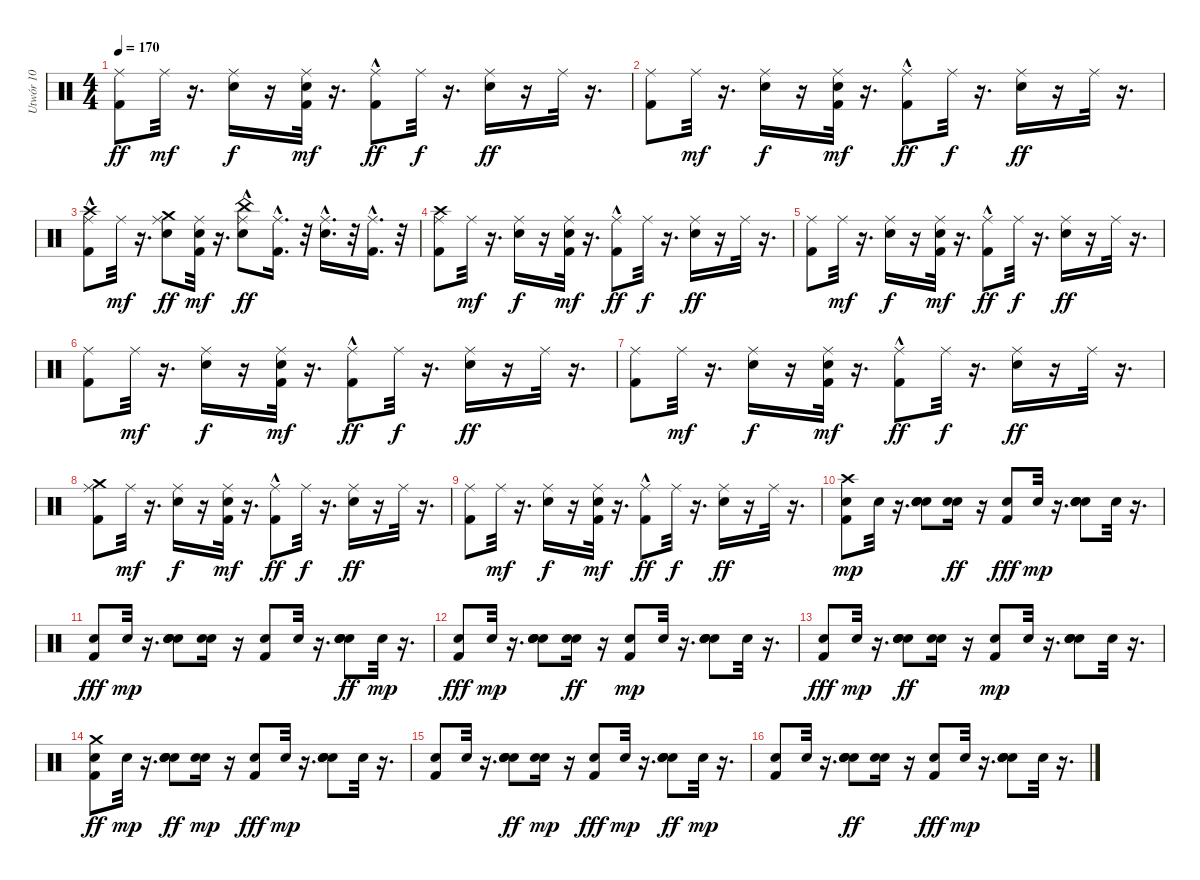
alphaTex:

\track ("Utwór 10" "Utwór 10") {instrument percussion}
\staff {score}
\articulation defaults
\ts (4 4)
\tempo 170
\clef neutral
\ks c
("Ride (middle)" "Kick (hit) 2").8{dy ff} "Ride (middle)".32{dy mf} r.16{d} ("Ride (middle)" "Snare (hit) 2").16{dy f} r.16 ("Snare (hit) 2" "Ride (middle)" "Kick (hit) 2").32{dy mf} r.16{d} ("Ride (middle)" "Kick (hit) 2"{hac}).8{dy ff} "Ride (middle)".32{dy f} r.16{d} ("Snare (hit) 2" "Ride (middle)").16{dy ff} r.16 "Ride (middle)".32 r.16{d} |
("Kick (hit) 2" "Ride (middle)").8 "Ride (middle)".32{dy mf} r.16{d} ("Snare (hit) 2" "Ride (middle)").16{dy f} r.16 ("Kick (hit) 2" "Ride (middle)" "Snare (hit) 2").32{dy mf} r.16{d} ("Kick (hit) 2"{hac} "Ride (middle)").8{dy ff} "Ride (middle)".32{dy f} r.16{d} ("Snare (hit) 2" "Ride (middle)").16{dy ff} r.16 "Ride (middle)".32 r.16{d} |
("Ride (middle)" "Crash high (hit)"{hac} "Kick (hit) 2").8 "Ride (middle)".32{dy mf} r.16{d} ("Ride (middle)" "Snare (hit) 2" "Crash medium (hit)").8{dy ff} ("Kick (hit) 2" "Snare (hit) 2" "Ride (middle)").32{dy mf} r.16{d} ("Snare (hit) 2" "China (hit)"{hac} "Ride (middle)").8{dy ff} ("Kick (hit) 2"{hac} "Ride (middle)").16{d} r.32 ("Ride (middle)" "Snare (hit) 2"{hac}).16{d} r.32 ("Kick (hit) 2"{hac} "Ride (middle)").16{d} r.32 |
("Kick (hit) 2" "Crash high (hit)" "Ride (middle)").8 "Ride (middle)".32{dy mf} r.16{d} ("Snare (hit) 2" "Ride (middle)").16{dy f} r.16 ("Ride (middle)" "Snare (hit) 2" "Kick (hit) 2").32{dy mf} r.16{d} ("Kick (hit) 2"{hac} "Ride (middle)").8{dy ff} "Ride (middle)".32{dy f} r.16{d} ("Ride (middle)" "Snare (hit) 2").16{dy ff} r.16 "Ride (middle)".32 r.16{d} |
("Kick (hit) 2" "Ride (middle)").8 "Ride (middle)".32{dy mf} r.16{d} ("Snare (hit) 2" "Ride (middle)").16{dy f} r.16 ("Kick (hit) 2" "Ride (middle)" "Snare (hit) 2").32{dy mf} r.16{d} ("Ride (middle)" "Kick (hit) 2"{hac}).8{dy ff} "Ride (middle)".32{dy f} r.16{d} ("Snare (hit) 2" "Ride (middle)").16{dy ff} r.16 "Ride (middle)".32 r.16{d} |
("Kick (hit) 2" "Ride (middle)").8 "Ride (middle)".32{dy mf} r.16{d} ("Ride (middle)" "Snare (hit) 2").16{dy f} r.16 ("Snare (hit) 2" "Kick (hit) 2" "Ride (middle)").32{dy mf} r.16{d} ("Ride (middle)" "Kick (hit) 2"{hac}).8{dy ff} "Ride (middle)".32{dy f} r.16{d} ("Ride (middle)" "Snare (hit) 2").16{dy ff} r.16 "Ride (middle)".32 r.16{d} |
("Kick (hit) 2" "Ride (middle)").8 "Ride (middle)".32{dy mf} r.16{d} ("Snare (hit) 2" "Ride (middle)").16{dy f} r.16 ("Snare (hit) 2" "Kick (hit) 2" "Ride (middle)").32{dy mf} r.16{d} ("Kick (hit) 2"{hac} "Ride (middle)").8{dy ff} "Ride (middle)".32{dy f} r.16{d} ("Ride (middle)" "Snare (hit) 2").16{dy ff} r.16 "Ride (middle)".32 r.16{d} |
("Kick (hit) 2" "Crash medium (hit)" "Ride (middle)").8 "Ride (middle)".32{dy mf} r.16{d} ("Snare (hit) 2" "Ride (middle)").16{dy f} r.16 ("Ride (middle)" "Snare (hit) 2" "Kick (hit) 2").32{dy mf} r.16{d} ("Ride (middle)" "Kick (hit) 2"{hac}).8{dy ff} "Ride (middle)".32{dy f} r.16{d} ("Ride (middle)" "Snare (hit) 2").16{dy ff} r.16 "Ride (middle)".32 r.16{d} |
("Kick (hit) 2" "Ride (middle)").8 "Ride (middle)".32{dy mf} r.16{d} ("Snare (hit) 2" "Ride (middle)").16{dy f} r.16 ("Kick (hit) 2" "Ride (middle)" "Snare (hit) 2").32{dy mf} r.16{d} ("Kick (hit) 2"{hac} "Ride (middle)").8{dy ff} "Ride (middle)".32{dy f} r.16{d} ("Ride (middle)" "Snare (hit) 2").16{dy ff} r.16 "Ride (middle)".32 r.16{d} |
("Kick (hit) 2" "Crash high (hit)" "Snare (hit) 2").8{dy mp} "Snare (hit) 2".32 r.16{d} ("Hand Clap (hit)" "Snare (hit) 2" "Snare (hit) 2" "Snare (hit) 2").8 ("Snare (hit) 2" "Hand Clap (hit)").16{dy ff} r.16 ("Snare (hit) 2" "Kick (hit) 2").8{dy fff} "Snare (hit) 2".32{dy mp} r.16{d} ("Hand Clap (hit)" "Snare (hit) 2" "Snare (hit) 2" "Snare (hit) 2").8 "Snare (hit) 2".32 r.16{d} |
("Snare (hit) 2" "Kick (hit) 2").8{dy fff} "Snare (hit) 2".32{dy mp} r.16{d} ("Hand Clap (hit)" "Snare (hit) 2" "Snare (hit) 2" "Snare (hit) 2").8 ("Hand Clap (hit)" "Snare (hit) 2").16 r.16 ("Kick (hit) 2" "Snare (hit) 2").8 "Snare (hit) 2".32 r.16{d} ("Snare (hit) 2" "Snare (hit) 2" "Hand Clap (hit)" "Snare (hit) 2").8{dy ff} "Snare (hit) 2".32{dy mp} r.16{d} |
("Snare (hit) 2" "Kick (hit) 2").8{dy fff} "Snare (hit) 2".32{dy mp} r.16{d} ("Hand Clap (hit)" "Snare (hit) 2" "Snare (hit) 2" "Snare (hit) 2").8 ("Snare (hit) 2" "Hand Clap (hit)").16{dy ff} r.16 ("Kick (hit) 2" "Snare (hit) 2").8{dy mp} "Snare (hit) 2".32 r.16{d} ("Hand Clap (hit)" "Snare (hit) 2" "Snare (hit) 2" "Snare (hit) 2").8 "Snare (hit) 2".32 r.16{d} |
("Snare (hit) 2" "Kick (hit) 2").8{dy fff} "Snare (hit) 2".32{dy mp} r.16{d} ("Snare (hit) 2" "Hand Clap (hit)" "Snare (hit) 2" "Snare (hit) 2").8{dy ff} ("Snare (hit) 2" "Hand Clap (hit)").16 r.16 ("Kick (hit) 2" "Snare (hit) 2").8{dy mp} "Snare (hit) 2".32 r.16{d} ("Snare (hit) 2" "Hand Clap (hit)" "Snare (hit) 2" "Snare (hit) 2").8 "Snare (hit) 2".32 r.16{d} |
("Kick (hit) 2" "Snare (hit) 2" "Crash medium (hit)").8{dy ff} "Snare (hit) 2".32{dy mp} r.16{d} ("Snare (hit) 2" "Snare (hit) 2" "Hand Clap (hit)" "Snare (hit) 2").8{dy ff} ("Hand Clap (hit)" "Snare (hit) 2").16{dy mp} r.16 ("Snare (hit) 2" "Kick (hit) 2").8{dy fff} "Snare (hit) 2".32{dy mp} r.16{d} ("Snare (hit) 2" "Hand Clap (hit)" "Snare (hit) 2" "Snare (hit) 2").8 "Snare (hit) 2".32 r.16{d} |
("Kick (hit) 2" "Snare (hit) 2").8 "Snare (hit) 2".32 r.16{d} ("Snare (hit) 2" "Hand Clap (hit)" "Snare (hit) 2" "Snare (hit) 2").8{dy ff} ("Hand Clap (hit)" "Snare (hit) 2").16{dy mp} r.16 ("Snare (hit) 2" "Kick (hit) 2").8{dy fff} "Snare (hit) 2".32{dy mp} r.16{d} ("Snare (hit) 2" "Snare (hit) 2" "Hand Clap (hit)" "Snare (hit) 2").8{dy ff} "Snare (hit) 2".32{dy mp} r.16{d} |
("Kick (hit) 2" "Snare (hit) 2").8 "Snare (hit) 2".32 r.16{d} ("Snare (hit) 2" "Hand Clap (hit)" "Snare (hit) 2" "Snare (hit) 2").8{dy ff} ("Snare (hit) 2" "Hand Clap (hit)").16 r.16 ("Snare (hit) 2" "Kick (hit) 2").8{dy fff} "Snare (hit) 2".32{dy mp} r.16{d} ("Hand Clap (hit)" "Snare (hit) 2" "Snare (hit) 2" "Snare (hit) 2").8 "Snare (hit) 2".32 r.16{d}
